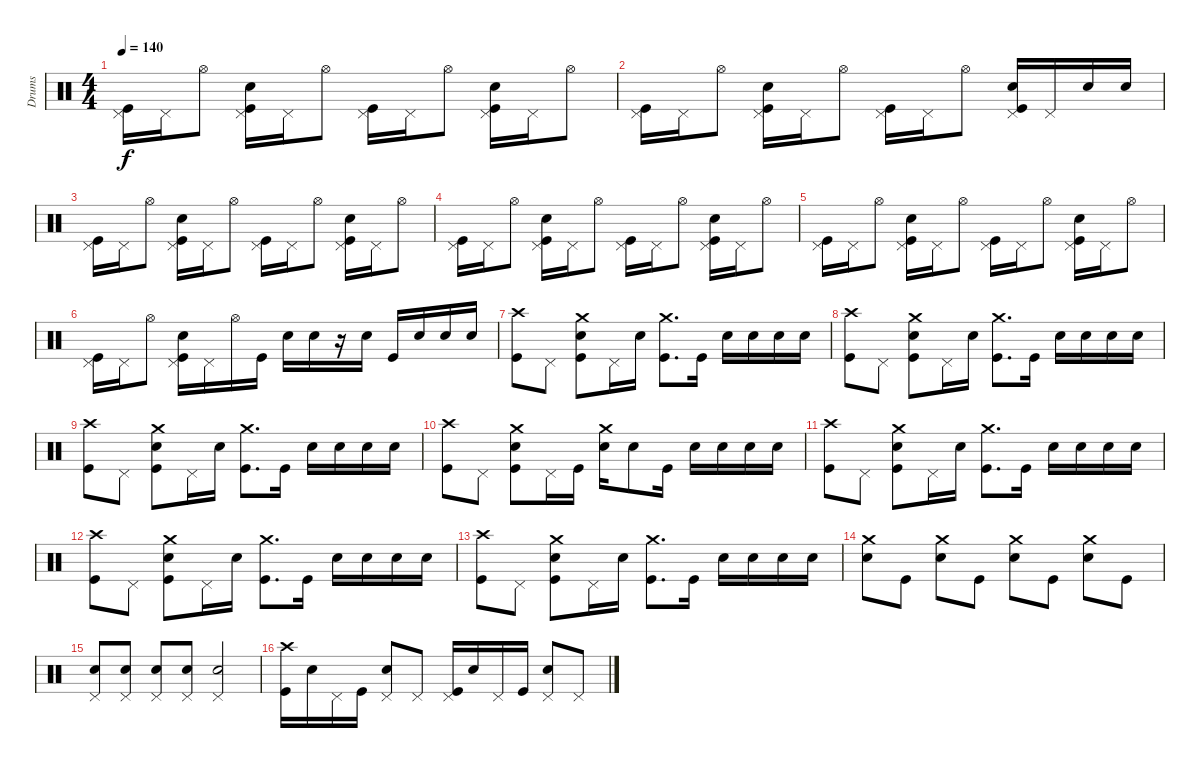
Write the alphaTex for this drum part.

\track ("Drums" "Drums") {instrument percussion}
\staff {score}
\articulation defaults
\ts (4 4)
\tempo 140
\clef neutral
\ks c
("Kick (hit)" "Pedal Hi-Hat (hit)").16{dy f} "Pedal Hi-Hat (hit)".16 "Hi-Hat (open)".8 ("Kick (hit)" "Snare (hit) 2" "Pedal Hi-Hat (hit)").16 "Pedal Hi-Hat (hit)".16 "Hi-Hat (open)".8 ("Kick (hit)" "Pedal Hi-Hat (hit)").16 "Pedal Hi-Hat (hit)".16 "Hi-Hat (open)".8 ("Kick (hit)" "Snare (hit) 2" "Pedal Hi-Hat (hit)").16 "Pedal Hi-Hat (hit)".16 "Hi-Hat (open)".8 |
("Kick (hit)" "Pedal Hi-Hat (hit)").16 "Pedal Hi-Hat (hit)".16 "Hi-Hat (open)".8 ("Kick (hit)" "Snare (hit) 2" "Pedal Hi-Hat (hit)").16 "Pedal Hi-Hat (hit)".16 "Hi-Hat (open)".8 ("Kick (hit)" "Pedal Hi-Hat (hit)").16 "Pedal Hi-Hat (hit)".16 "Hi-Hat (open)".8 ("Kick (hit)" "Snare (hit) 2" "Pedal Hi-Hat (hit)").16 "Pedal Hi-Hat (hit)".16 "Snare (hit) 2".16 "Snare (hit) 2".16 |
("Kick (hit)" "Pedal Hi-Hat (hit)").16 "Pedal Hi-Hat (hit)".16 "Hi-Hat (open)".8 ("Kick (hit)" "Snare (hit) 2" "Pedal Hi-Hat (hit)").16 "Pedal Hi-Hat (hit)".16 "Hi-Hat (open)".8 ("Kick (hit)" "Pedal Hi-Hat (hit)").16 "Pedal Hi-Hat (hit)".16 "Hi-Hat (open)".8 ("Kick (hit)" "Snare (hit) 2" "Pedal Hi-Hat (hit)").16 "Pedal Hi-Hat (hit)".16 "Hi-Hat (open)".8 |
("Kick (hit)" "Pedal Hi-Hat (hit)").16 "Pedal Hi-Hat (hit)".16 "Hi-Hat (open)".8 ("Kick (hit)" "Snare (hit) 2" "Pedal Hi-Hat (hit)").16 "Pedal Hi-Hat (hit)".16 "Hi-Hat (open)".8 ("Kick (hit)" "Pedal Hi-Hat (hit)").16 "Pedal Hi-Hat (hit)".16 "Hi-Hat (open)".8 ("Kick (hit)" "Snare (hit) 2" "Pedal Hi-Hat (hit)").16 "Pedal Hi-Hat (hit)".16 "Hi-Hat (open)".8 |
("Kick (hit)" "Pedal Hi-Hat (hit)").16 "Pedal Hi-Hat (hit)".16 "Hi-Hat (open)".8 ("Kick (hit)" "Snare (hit) 2" "Pedal Hi-Hat (hit)").16 "Pedal Hi-Hat (hit)".16 "Hi-Hat (open)".8 ("Kick (hit)" "Pedal Hi-Hat (hit)").16 "Pedal Hi-Hat (hit)".16 "Hi-Hat (open)".8 ("Kick (hit)" "Snare (hit) 2" "Pedal Hi-Hat (hit)").16 "Pedal Hi-Hat (hit)".16 "Hi-Hat (open)".8 |
("Kick (hit)" "Pedal Hi-Hat (hit)").16 "Pedal Hi-Hat (hit)".16 "Hi-Hat (open)".8 ("Kick (hit)" "Snare (hit) 2" "Pedal Hi-Hat (hit)").16 "Pedal Hi-Hat (hit)".16 "Hi-Hat (open)".16 "Kick (hit)".16 "Snare (hit) 2".16 "Snare (hit) 2".16 r.16 "Snare (hit) 2".16 "Kick (hit)".16 "Snare (hit) 2".16 "Snare (hit) 2".16 "Snare (hit) 2".16 |
("Kick (hit)" "Crash high (hit)").8 "Pedal Hi-Hat (hit)".8 ("Kick (hit)" "Snare (hit) 2" "Crash medium (hit)").8 "Pedal Hi-Hat (hit)".16 "Snare (hit) 2".16 ("Kick (hit)" "Crash medium (hit)").8{d} "Kick (hit)".16 "Snare (hit) 2".16 "Snare (hit) 2".16 "Snare (hit) 2".16 "Snare (hit) 2".16 |
("Kick (hit)" "Crash high (hit)").8 "Pedal Hi-Hat (hit)".8 ("Kick (hit)" "Snare (hit) 2" "Crash medium (hit)").8 "Pedal Hi-Hat (hit)".16 "Snare (hit) 2".16 ("Kick (hit)" "Crash medium (hit)").8{d} "Kick (hit)".16 "Snare (hit) 2".16 "Snare (hit) 2".16 "Snare (hit) 2".16 "Snare (hit) 2".16 |
("Kick (hit)" "Crash high (hit)").8 "Pedal Hi-Hat (hit)".8 ("Kick (hit)" "Snare (hit) 2" "Crash medium (hit)").8 "Pedal Hi-Hat (hit)".16 "Snare (hit) 2".16 ("Kick (hit)" "Crash medium (hit)").8{d} "Kick (hit)".16 "Snare (hit) 2".16 "Snare (hit) 2".16 "Snare (hit) 2".16 "Snare (hit) 2".16 |
("Kick (hit)" "Crash high (hit)").8 "Pedal Hi-Hat (hit)".8 ("Kick (hit)" "Snare (hit) 2" "Crash medium (hit)").8 "Pedal Hi-Hat (hit)".16 "Kick (hit)".16 ("Snare (hit) 2" "Crash medium (hit)").16 "Snare (hit) 2".8 "Kick (hit)".16 "Snare (hit) 2".16 "Snare (hit) 2".16 "Snare (hit) 2".16 "Snare (hit) 2".16 |
("Kick (hit)" "Crash high (hit)").8 "Pedal Hi-Hat (hit)".8 ("Kick (hit)" "Snare (hit) 2" "Crash medium (hit)").8 "Pedal Hi-Hat (hit)".16 "Snare (hit) 2".16 ("Kick (hit)" "Crash medium (hit)").8{d} "Kick (hit)".16 "Snare (hit) 2".16 "Snare (hit) 2".16 "Snare (hit) 2".16 "Snare (hit) 2".16 |
("Kick (hit)" "Crash high (hit)").8 "Pedal Hi-Hat (hit)".8 ("Kick (hit)" "Snare (hit) 2" "Crash medium (hit)").8 "Pedal Hi-Hat (hit)".16 "Snare (hit) 2".16 ("Kick (hit)" "Crash medium (hit)").8{d} "Kick (hit)".16 "Snare (hit) 2".16 "Snare (hit) 2".16 "Snare (hit) 2".16 "Snare (hit) 2".16 |
("Kick (hit)" "Crash high (hit)").8 "Pedal Hi-Hat (hit)".8 ("Kick (hit)" "Snare (hit) 2" "Crash medium (hit)").8 "Pedal Hi-Hat (hit)".16 "Snare (hit) 2".16 ("Kick (hit)" "Crash medium (hit)").8{d} "Kick (hit)".16 "Snare (hit) 2".16 "Snare (hit) 2".16 "Snare (hit) 2".16 "Snare (hit) 2".16 |
("Snare (hit) 2" "Crash medium (hit)").8 "Kick (hit)".8 ("Snare (hit) 2" "Crash medium (hit)").8 "Kick (hit)".8 ("Snare (hit) 2" "Crash medium (hit)").8 "Kick (hit)".8 ("Snare (hit) 2" "Crash medium (hit)").8 "Kick (hit)".8 |
("Snare (hit) 2" "Pedal Hi-Hat (hit)").8 ("Snare (hit) 2" "Pedal Hi-Hat (hit)").8 ("Snare (hit) 2" "Pedal Hi-Hat (hit)").8 ("Snare (hit) 2" "Pedal Hi-Hat (hit)").8 ("Snare (hit) 2" "Pedal Hi-Hat (hit)").2 |
("Kick (hit)" "Crash high (hit)").16 "Snare (hit) 2".16 "Pedal Hi-Hat (hit)".16 "Kick (hit)".16 ("Snare (hit) 2" "Pedal Hi-Hat (hit)").8 "Pedal Hi-Hat (hit)".8 ("Kick (hit)" "Pedal Hi-Hat (hit)").16 "Snare (hit) 2".16 "Pedal Hi-Hat (hit)".16 "Kick (hit)".16 ("Snare (hit) 2" "Pedal Hi-Hat (hit)").8 "Pedal Hi-Hat (hit)".8
